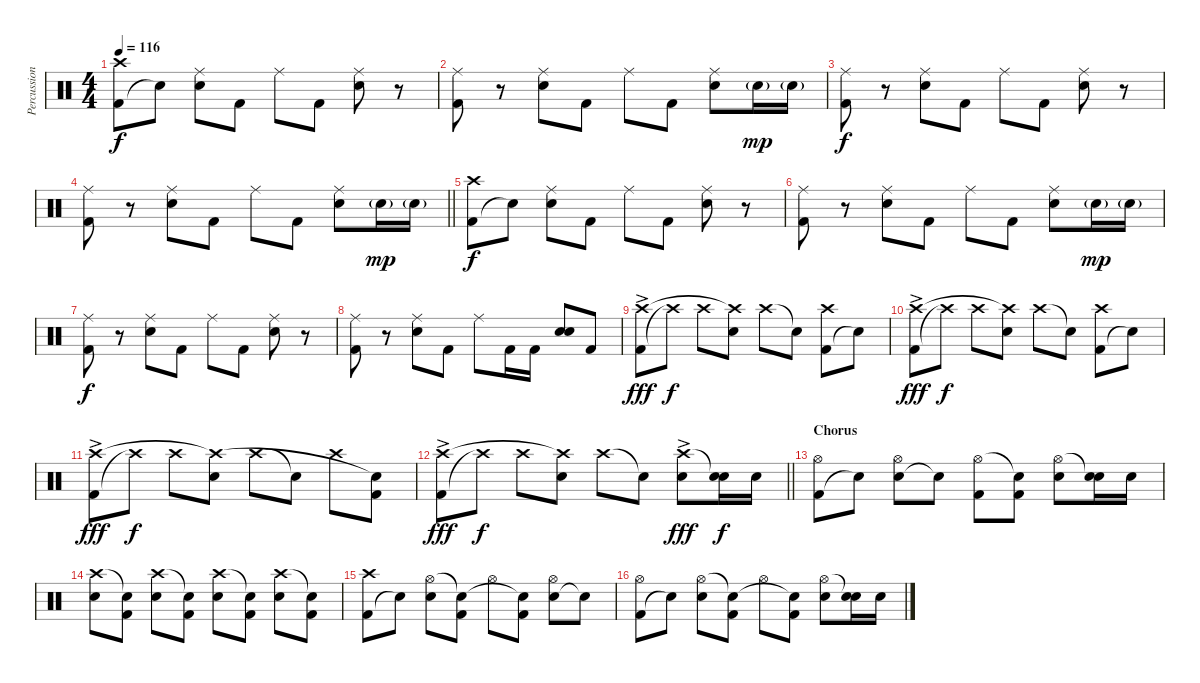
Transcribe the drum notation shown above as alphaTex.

\track ("Percussion" "Percussion") {instrument percussion}
\staff {score}
\articulation defaults
\ts (4 4)
\tempo 116
\clef neutral
\ks c
("Kick (hit) 2" "Crash high (hit)").8{dy f} "Snare (hit)"{t}.8 ("Electric Snare (hit)" "Ride (middle)").8 "Kick (hit) 2".8 "Ride (middle)".8 "Kick (hit) 2".8 ("Electric Snare (hit)" "Ride (middle)").8 r.8 |
("Kick (hit) 2" "Ride (middle)").8 r.8 ("Electric Snare (hit)" "Ride (middle)").8 "Kick (hit) 2".8 "Ride (middle)".8 "Kick (hit) 2".8 ("Electric Snare (hit)" "Ride (middle)").8 "Electric Snare (hit)"{g}.16{dy mp} "Electric Snare (hit)"{g}.16 |
("Kick (hit) 2" "Ride (middle)").8{dy f} r.8 ("Electric Snare (hit)" "Ride (middle)").8 "Kick (hit) 2".8 "Ride (middle)".8 "Kick (hit) 2".8 ("Electric Snare (hit)" "Ride (middle)").8 r.8 |
\barLineRight lightlight
("Kick (hit) 2" "Ride (middle)").8 r.8 ("Electric Snare (hit)" "Ride (middle)").8 "Kick (hit) 2".8 "Ride (middle)".8 "Kick (hit) 2".8 ("Electric Snare (hit)" "Ride (middle)").8 "Electric Snare (hit)"{g}.16{dy mp} "Electric Snare (hit)"{g}.16 |
("Kick (hit) 2" "Crash high (hit)").8{dy f} "Snare (hit)"{t}.8 ("Electric Snare (hit)" "Ride (middle)").8 "Kick (hit) 2".8 "Ride (middle)".8 "Kick (hit) 2".8 ("Electric Snare (hit)" "Ride (middle)").8 r.8 |
("Kick (hit) 2" "Ride (middle)").8 r.8 ("Electric Snare (hit)" "Ride (middle)").8 "Kick (hit) 2".8 "Ride (middle)".8 "Kick (hit) 2".8 ("Electric Snare (hit)" "Ride (middle)").8 "Electric Snare (hit)"{g}.16{dy mp} "Electric Snare (hit)"{g}.16 |
("Kick (hit) 2" "Ride (middle)").8{dy f} r.8 ("Electric Snare (hit)" "Ride (middle)").8 "Kick (hit) 2".8 "Ride (middle)".8 "Kick (hit) 2".8 ("Electric Snare (hit)" "Ride (middle)").8 r.8 |
("Kick (hit) 2" "Ride (middle)").8 r.8 ("Electric Snare (hit)" "Ride (middle)").8 "Kick (hit) 2".8 "Ride (middle)".8 "Kick (hit) 2".16 "Kick (hit) 2".16 ("Electric Snare (hit)" "Electric Snare (hit)").8 "Kick (hit) 2".8 |
("Kick (hit) 2" "Crash high (hit)"{ac}).8{dy fff} "Crash high (hit)"{t}.8{dy f} "Crash high (hit)".8 ("Electric Snare (hit)" "Crash high (hit)"{t}).8 "Crash high (hit)".8 "Snare (hit)"{t}.8 ("Kick (hit) 2" "Crash high (hit)").8 "Snare (hit)"{t}.8 |
("Kick (hit) 2" "Crash high (hit)"{ac}).8{dy fff} "Crash high (hit)"{t}.8{dy f} "Crash high (hit)".8 ("Electric Snare (hit)" "Crash high (hit)"{t}).8 "Crash high (hit)".8 "Snare (hit)"{t}.8 ("Kick (hit) 2" "Crash high (hit)").8 "Snare (hit)"{t}.8 |
("Kick (hit) 2" "Crash high (hit)"{ac}).8{dy fff} "Crash high (hit)"{t}.8{dy f} "Crash high (hit)".8 ("Electric Snare (hit)" "Crash high (hit)"{t}).8 "Crash high (hit)".8 "Snare (hit)"{t}.8 "Crash high (hit)".8 ("Kick (hit) 2" "Snare (hit)"{t}).8 |
\barLineRight lightlight
("Kick (hit) 2" "Crash high (hit)"{ac}).8{dy fff} "Crash high (hit)"{t}.8{dy f} "Crash high (hit)".8 ("Electric Snare (hit)" "Crash high (hit)"{t}).8 "Crash high (hit)".8 "Snare (hit)"{t}.8 ("Electric Snare (hit)" "Crash high (hit)"{ac}).8{dy fff} ("Electric Snare (hit)" "Snare (hit)"{t}).16{dy f} "Electric Snare (hit)".16 |
\section ("" "Chorus")
("Kick (hit) 2" "Hi-Hat (open)").8 "Snare (hit)"{t}.8 ("Electric Snare (hit)" "Hi-Hat (open)").8 "Snare (hit)"{t}.8 ("Kick (hit) 2" "Hi-Hat (open)").8 ("Kick (hit) 2" "Snare (hit)"{t}).8 ("Electric Snare (hit)" "Hi-Hat (open)").8 ("Electric Snare (hit)" "Snare (hit)"{t}).16 "Electric Snare (hit)".16 |
("Electric Snare (hit)" "Crash high (hit)").8 ("Kick (hit) 2" "Snare (hit)"{t}).8 ("Electric Snare (hit)" "Crash high (hit)").8 ("Kick (hit) 2" "Snare (hit)"{t}).8 ("Electric Snare (hit)" "Crash high (hit)").8 ("Kick (hit) 2" "Snare (hit)"{t}).8 ("Electric Snare (hit)" "Crash high (hit)").8 ("Kick (hit) 2" "Snare (hit)"{t}).8 |
("Kick (hit) 2" "Crash high (hit)").8 "Snare (hit)"{t}.8 ("Electric Snare (hit)" "Hi-Hat (open)").8 ("Kick (hit) 2" "Snare (hit)"{t}).8 "Hi-Hat (open)".8 ("Kick (hit) 2" "Snare (hit)"{t}).8 ("Electric Snare (hit)" "Hi-Hat (open)").8 "Snare (hit)"{t}.8 |
("Kick (hit) 2" "Hi-Hat (open)").8 "Snare (hit)"{t}.8 ("Electric Snare (hit)" "Hi-Hat (open)").8 ("Kick (hit) 2" "Snare (hit)"{t}).8 "Hi-Hat (open)".8 ("Kick (hit) 2" "Snare (hit)"{t}).8 ("Electric Snare (hit)" "Hi-Hat (open)").8 ("Electric Snare (hit)" "Snare (hit)"{t}).16 "Electric Snare (hit)".16
